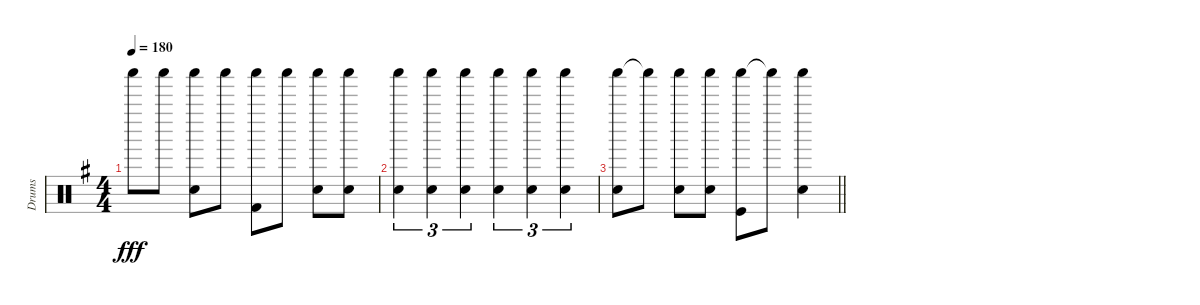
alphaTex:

\track ("Drums" "Drums") {instrument percussion}
\staff {score}
\articulation defaults
\ts (4 4)
\tempo 180
\clef neutral
\ks eminor "Shaker (hit)".8{dy fff} "Shaker (hit)".8
("Shaker (hit)" "Snare (hit) 2").8 "Shaker (hit)".8 ("Shaker (hit)" "Kick (hit) 2").8 "Shaker (hit)".8 ("Shaker (hit)" "Snare (hit) 2").8 ("Shaker (hit)" "Snare (hit) 2").8 |
("Shaker (hit)" "Snare (hit) 2").4{tu (3 2)} ("Shaker (hit)" "Snare (hit) 2").4{tu (3 2)} ("Shaker (hit)" "Snare (hit) 2").4{tu (3 2)} ("Shaker (hit)" "Snare (hit) 2").4{tu (3 2)} ("Shaker (hit)" "Snare (hit) 2").4{tu (3 2)} ("Shaker (hit)" "Snare (hit) 2").4{tu (3 2)} |
\barLineRight lightlight
("Shaker (hit)" "Snare (hit) 2").8 "Shaker (hit)"{t}.8 ("Shaker (hit)" "Snare (hit) 2").8 ("Shaker (hit)" "Snare (hit) 2").8 ("Shaker (hit)" "Kick (hit)").8 "Shaker (hit)"{t}.8 ("Shaker (hit)" "Snare (hit) 2").4
